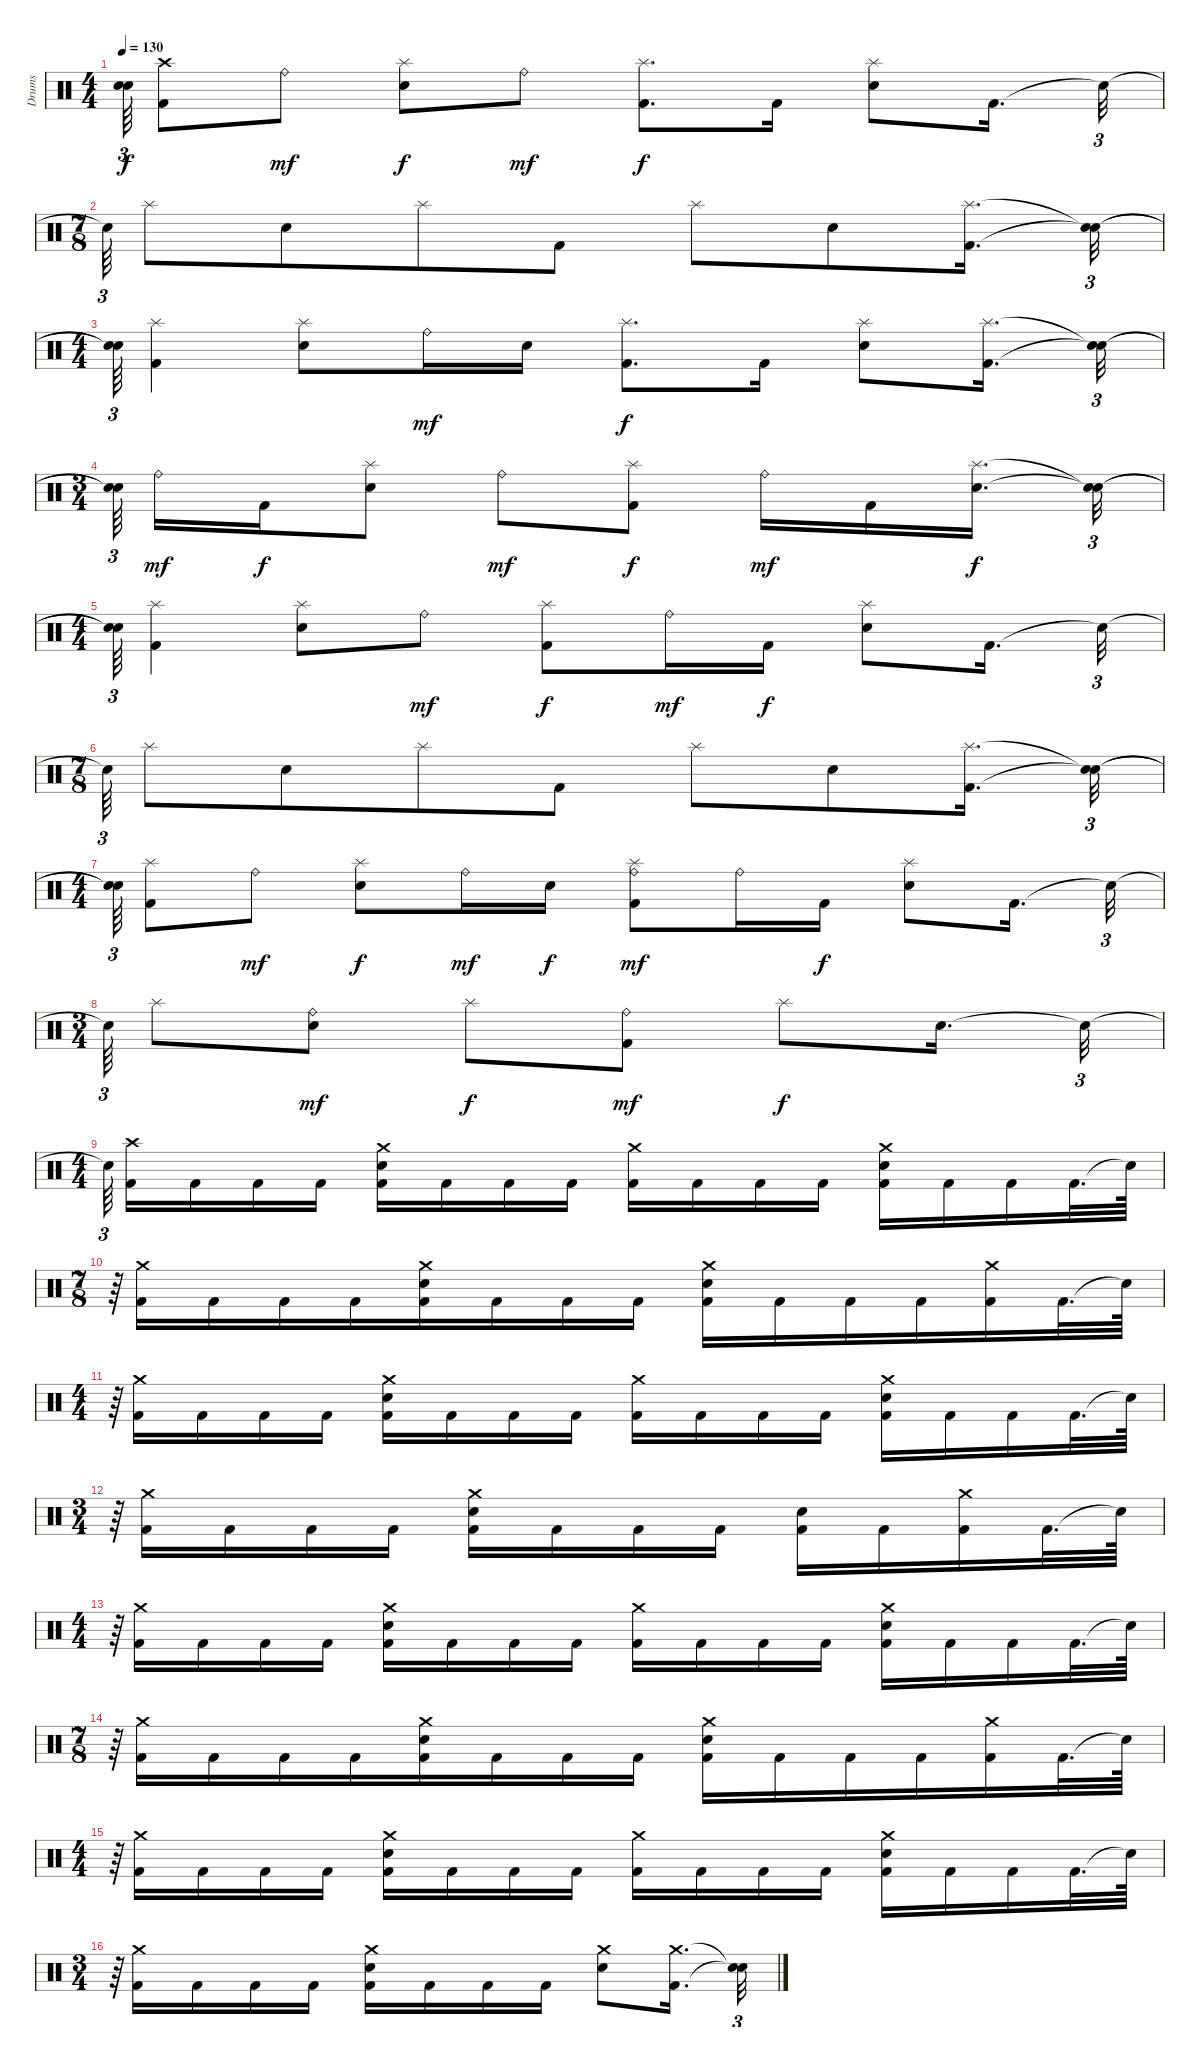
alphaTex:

\track ("Drums" "Drums") {instrument percussion}
\staff {score}
\articulation defaults
\ts (4 4)
\tempo 130
\clef neutral
\ks c
("Snare (hit)"{t} "Snare (hit)"{t}).64{tu (3 2) dy f} ("Crash high (hit)" "Kick (hit) 2").8 "Ride (bell)".8{dy mf} ("Electric Snare (hit)" "Splash (hit)").8{dy f} "Ride (bell)".8{dy mf} ("Kick (hit) 2" "Splash (hit)").8{d dy f} "Kick (hit) 2".16 ("Electric Snare (hit)" "Splash (hit)").8 "Kick (hit) 2".16{d} "Snare (hit)"{t}.32{tu (3 2)} |
\ts (7 8)
"Snare (hit)"{t}.64{tu (3 2)} "Splash (hit)".8 "Electric Snare (hit)".8 "Splash (hit)".8 "Kick (hit) 2".8 "Splash (hit)".8 "Electric Snare (hit)".8 ("Kick (hit) 2" "Splash (hit)").16{d} ("Snare (hit)"{t} "Snare (hit)"{t}).32{tu (3 2)} |
\ts (4 4)
("Snare (hit)"{t} "Snare (hit)"{t}).64{tu (3 2)} ("Kick (hit) 2" "Splash (hit)").4 ("Electric Snare (hit)" "Splash (hit)").8 "Ride (bell)".16{dy mf} "Electric Snare (hit)".16 ("Kick (hit) 2" "Splash (hit)").8{d dy f} "Kick (hit) 2".16 ("Electric Snare (hit)" "Splash (hit)").8 ("Kick (hit) 2" "Splash (hit)").16{d} ("Snare (hit)"{t} "Snare (hit)"{t}).32{tu (3 2)} |
\ts (3 4)
("Snare (hit)"{t} "Snare (hit)"{t}).64{tu (3 2)} "Ride (bell)".16{dy mf} "Kick (hit) 2".16{dy f} ("Electric Snare (hit)" "Splash (hit)").8 "Ride (bell)".8{dy mf} ("Kick (hit) 2" "Splash (hit)").8{dy f} "Ride (bell)".16{dy mf} "Kick (hit) 2".16 ("Electric Snare (hit)" "Splash (hit)").16{d dy f} ("Snare (hit)"{t} "Snare (hit)"{t}).32{tu (3 2)} |
\ts (4 4)
("Snare (hit)"{t} "Snare (hit)"{t}).64{tu (3 2)} ("Kick (hit) 2" "Splash (hit)").4 ("Electric Snare (hit)" "Splash (hit)").8 "Ride (bell)".8{dy mf} ("Kick (hit) 2" "Splash (hit)").8{dy f} "Ride (bell)".16{dy mf} "Kick (hit) 2".16{dy f} ("Electric Snare (hit)" "Splash (hit)").8 "Kick (hit) 2".16{d} "Snare (hit)"{t}.32{tu (3 2)} |
\ts (7 8)
"Snare (hit)"{t}.64{tu (3 2)} "Splash (hit)".8 "Electric Snare (hit)".8 "Splash (hit)".8 "Kick (hit) 2".8 "Splash (hit)".8 "Electric Snare (hit)".8 ("Splash (hit)" "Kick (hit) 2").16{d} ("Snare (hit)"{t} "Snare (hit)"{t}).32{tu (3 2)} |
\ts (4 4)
("Snare (hit)"{t} "Snare (hit)"{t}).64{tu (3 2)} ("Kick (hit) 2" "Splash (hit)").8 "Ride (bell)".8{dy mf} ("Electric Snare (hit)" "Splash (hit)").8{dy f} "Ride (bell)".16{dy mf} "Electric Snare (hit)".16{dy f} ("Kick (hit) 2" "Splash (hit)" "Ride (bell)").8{dy mf} "Ride (bell)".16 "Kick (hit) 2".16{dy f} ("Electric Snare (hit)" "Splash (hit)").8 "Kick (hit) 2".16{d} "Snare (hit)"{t}.32{tu (3 2)} |
\ts (3 4)
"Snare (hit)"{t}.64{tu (3 2)} "Splash (hit)".8 ("Electric Snare (hit)" "Ride (bell)").8{dy mf} "Splash (hit)".8{dy f} ("Kick (hit) 2" "Ride (bell)").8{dy mf} "Splash (hit)".8{dy f} "Electric Snare (hit)".16{d} "Snare (hit)"{t}.32{tu (3 2)} |
\ts (4 4)
"Snare (hit)"{t}.64{tu (3 2)} ("Crash high (hit)" "Kick (hit) 2").16 "Kick (hit) 2".16 "Kick (hit) 2".16 "Kick (hit) 2".16 ("Kick (hit) 2" "Electric Snare (hit)" "Crash medium (hit)").16 "Kick (hit) 2".16 "Kick (hit) 2".16 "Kick (hit) 2".16 ("Kick (hit) 2" "Crash medium (hit)").16 "Kick (hit) 2".16 "Kick (hit) 2".16 "Kick (hit) 2".16 ("Kick (hit) 2" "Electric Snare (hit)" "Crash medium (hit)").16 "Kick (hit) 2".16 "Kick (hit) 2".16 "Kick (hit) 2".32{d} "Snare (hit)"{t}.64 |
\ts (7 8)
r.64{tu (3 2)} ("Kick (hit) 2" "Crash medium (hit)").16 "Kick (hit) 2".16 "Kick (hit) 2".16 "Kick (hit) 2".16 ("Kick (hit) 2" "Electric Snare (hit)" "Crash medium (hit)").16 "Kick (hit) 2".16 "Kick (hit) 2".16 "Kick (hit) 2".16 ("Kick (hit) 2" "Electric Snare (hit)" "Crash medium (hit)").16 "Kick (hit) 2".16 "Kick (hit) 2".16 "Kick (hit) 2".16 ("Kick (hit) 2" "Crash medium (hit)").16 "Kick (hit) 2".32{d} "Snare (hit)"{t}.64 |
\ts (4 4)
r.64{tu (3 2)} ("Kick (hit) 2" "Crash medium (hit)").16 "Kick (hit) 2".16 "Kick (hit) 2".16 "Kick (hit) 2".16 ("Kick (hit) 2" "Crash medium (hit)" "Electric Snare (hit)").16 "Kick (hit) 2".16 "Kick (hit) 2".16 "Kick (hit) 2".16 ("Kick (hit) 2" "Crash medium (hit)").16 "Kick (hit) 2".16 "Kick (hit) 2".16 "Kick (hit) 2".16 ("Kick (hit) 2" "Electric Snare (hit)" "Crash medium (hit)").16 "Kick (hit) 2".16 "Kick (hit) 2".16 "Kick (hit) 2".32{d} "Snare (hit)"{t}.64 |
\ts (3 4)
r.64{tu (3 2)} ("Kick (hit) 2" "Crash medium (hit)").16 "Kick (hit) 2".16 "Kick (hit) 2".16 "Kick (hit) 2".16 ("Kick (hit) 2" "Electric Snare (hit)" "Crash medium (hit)").16 "Kick (hit) 2".16 "Kick (hit) 2".16 "Kick (hit) 2".16 ("Kick (hit) 2" "Electric Snare (hit)").16 "Kick (hit) 2".16 ("Kick (hit) 2" "Crash medium (hit)").16 "Kick (hit) 2".32{d} "Snare (hit)"{t}.64 |
\ts (4 4)
r.64{tu (3 2)} ("Kick (hit) 2" "Crash medium (hit)").16 "Kick (hit) 2".16 "Kick (hit) 2".16 "Kick (hit) 2".16 ("Kick (hit) 2" "Electric Snare (hit)" "Crash medium (hit)").16 "Kick (hit) 2".16 "Kick (hit) 2".16 "Kick (hit) 2".16 ("Kick (hit) 2" "Crash medium (hit)").16 "Kick (hit) 2".16 "Kick (hit) 2".16 "Kick (hit) 2".16 ("Kick (hit) 2" "Electric Snare (hit)" "Crash medium (hit)").16 "Kick (hit) 2".16 "Kick (hit) 2".16 "Kick (hit) 2".32{d} "Snare (hit)"{t}.64 |
\ts (7 8)
r.64{tu (3 2)} ("Kick (hit) 2" "Crash medium (hit)").16 "Kick (hit) 2".16 "Kick (hit) 2".16 "Kick (hit) 2".16 ("Kick (hit) 2" "Electric Snare (hit)" "Crash medium (hit)").16 "Kick (hit) 2".16 "Kick (hit) 2".16 "Kick (hit) 2".16 ("Kick (hit) 2" "Electric Snare (hit)" "Crash medium (hit)").16 "Kick (hit) 2".16 "Kick (hit) 2".16 "Kick (hit) 2".16 ("Kick (hit) 2" "Crash medium (hit)").16 "Kick (hit) 2".32{d} "Snare (hit)"{t}.64 |
\ts (4 4)
r.64{tu (3 2)} ("Kick (hit) 2" "Crash medium (hit)").16 "Kick (hit) 2".16 "Kick (hit) 2".16 "Kick (hit) 2".16 ("Kick (hit) 2" "Crash medium (hit)" "Electric Snare (hit)").16 "Kick (hit) 2".16 "Kick (hit) 2".16 "Kick (hit) 2".16 ("Kick (hit) 2" "Crash medium (hit)").16 "Kick (hit) 2".16 "Kick (hit) 2".16 "Kick (hit) 2".16 ("Kick (hit) 2" "Electric Snare (hit)" "Crash medium (hit)").16 "Kick (hit) 2".16 "Kick (hit) 2".16 "Kick (hit) 2".32{d} "Snare (hit)"{t}.64 |
\ts (3 4)
r.64{tu (3 2)} ("Kick (hit) 2" "Crash medium (hit)").16 "Kick (hit) 2".16 "Kick (hit) 2".16 "Kick (hit) 2".16 ("Kick (hit) 2" "Electric Snare (hit)" "Crash medium (hit)").16 "Kick (hit) 2".16 "Kick (hit) 2".16 "Kick (hit) 2".16 ("Crash medium (hit)" "Electric Snare (hit)").8 ("Crash medium (hit)" "Kick (hit) 2").16{d} ("Snare (hit)"{t} "Snare (hit)"{t}).32{tu (3 2)}
